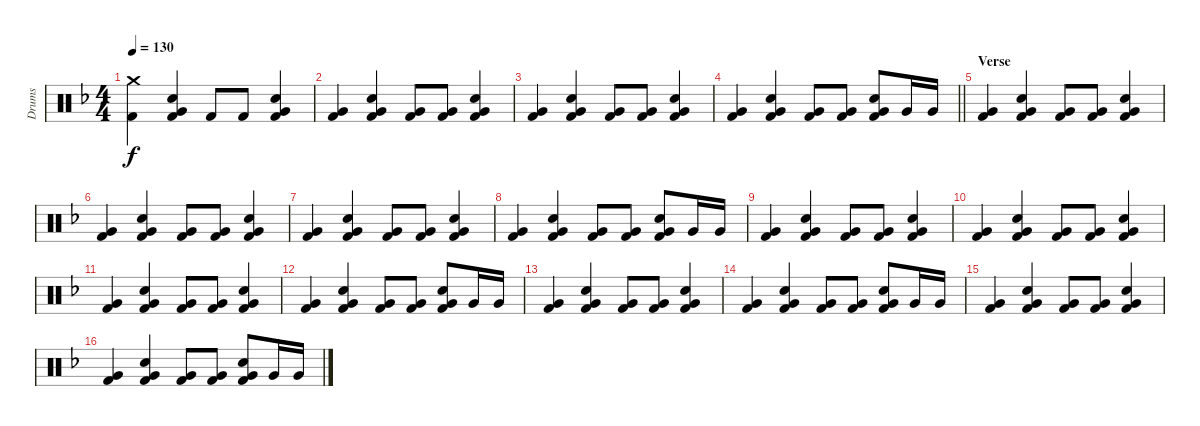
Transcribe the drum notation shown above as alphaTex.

\track ("Drums" "Drums") {instrument percussion}
\staff {score}
\articulation defaults
\ts (4 4)
\tempo 130
\clef neutral
\ks f
("Crash medium (hit)" "Kick (hit) 2").4{dy f} ("Snare (hit) 2" "Very Low Tom (hit)" "Kick (hit) 2").4 "Kick (hit) 2".8 "Kick (hit) 2".8 ("Snare (hit) 2" "Very Low Tom (hit)" "Kick (hit) 2").4 |
("Very Low Tom (hit)" "Kick (hit) 2").4 ("Snare (hit) 2" "Very Low Tom (hit)" "Kick (hit) 2").4 ("Very Low Tom (hit)" "Kick (hit) 2").8 ("Very Low Tom (hit)" "Kick (hit) 2").8 ("Snare (hit) 2" "Very Low Tom (hit)" "Kick (hit) 2").4 |
("Very Low Tom (hit)" "Kick (hit) 2").4 ("Snare (hit) 2" "Very Low Tom (hit)" "Kick (hit) 2").4 ("Very Low Tom (hit)" "Kick (hit) 2").8 ("Very Low Tom (hit)" "Kick (hit) 2").8 ("Snare (hit) 2" "Very Low Tom (hit)" "Kick (hit) 2").4 |
\barLineRight lightlight
("Very Low Tom (hit)" "Kick (hit) 2").4 ("Snare (hit) 2" "Very Low Tom (hit)" "Kick (hit) 2").4 ("Very Low Tom (hit)" "Kick (hit) 2").8 ("Very Low Tom (hit)" "Kick (hit) 2").8 ("Snare (hit) 2" "Very Low Tom (hit)" "Kick (hit) 2").8 "Very Low Tom (hit)".16 "Very Low Tom (hit)".16 |
\section ("" "Verse")
("Very Low Tom (hit)" "Kick (hit) 2").4 ("Snare (hit) 2" "Very Low Tom (hit)" "Kick (hit) 2").4 ("Very Low Tom (hit)" "Kick (hit) 2").8 ("Very Low Tom (hit)" "Kick (hit) 2").8 ("Snare (hit) 2" "Very Low Tom (hit)" "Kick (hit) 2").4 |
("Very Low Tom (hit)" "Kick (hit) 2").4 ("Snare (hit) 2" "Very Low Tom (hit)" "Kick (hit) 2").4 ("Very Low Tom (hit)" "Kick (hit) 2").8 ("Very Low Tom (hit)" "Kick (hit) 2").8 ("Snare (hit) 2" "Very Low Tom (hit)" "Kick (hit) 2").4 |
("Very Low Tom (hit)" "Kick (hit) 2").4 ("Snare (hit) 2" "Very Low Tom (hit)" "Kick (hit) 2").4 ("Very Low Tom (hit)" "Kick (hit) 2").8 ("Very Low Tom (hit)" "Kick (hit) 2").8 ("Snare (hit) 2" "Very Low Tom (hit)" "Kick (hit) 2").4 |
("Very Low Tom (hit)" "Kick (hit) 2").4 ("Snare (hit) 2" "Very Low Tom (hit)" "Kick (hit) 2").4 ("Very Low Tom (hit)" "Kick (hit) 2").8 ("Very Low Tom (hit)" "Kick (hit) 2").8 ("Snare (hit) 2" "Very Low Tom (hit)" "Kick (hit) 2").8 "Very Low Tom (hit)".16 "Very Low Tom (hit)".16 |
("Very Low Tom (hit)" "Kick (hit) 2").4 ("Snare (hit) 2" "Very Low Tom (hit)" "Kick (hit) 2").4 ("Very Low Tom (hit)" "Kick (hit) 2").8 ("Very Low Tom (hit)" "Kick (hit) 2").8 ("Snare (hit) 2" "Very Low Tom (hit)" "Kick (hit) 2").4 |
("Very Low Tom (hit)" "Kick (hit) 2").4 ("Snare (hit) 2" "Very Low Tom (hit)" "Kick (hit) 2").4 ("Very Low Tom (hit)" "Kick (hit) 2").8 ("Very Low Tom (hit)" "Kick (hit) 2").8 ("Snare (hit) 2" "Very Low Tom (hit)" "Kick (hit) 2").4 |
("Very Low Tom (hit)" "Kick (hit) 2").4 ("Snare (hit) 2" "Very Low Tom (hit)" "Kick (hit) 2").4 ("Very Low Tom (hit)" "Kick (hit) 2").8 ("Very Low Tom (hit)" "Kick (hit) 2").8 ("Snare (hit) 2" "Very Low Tom (hit)" "Kick (hit) 2").4 |
("Very Low Tom (hit)" "Kick (hit) 2").4 ("Snare (hit) 2" "Very Low Tom (hit)" "Kick (hit) 2").4 ("Very Low Tom (hit)" "Kick (hit) 2").8 ("Very Low Tom (hit)" "Kick (hit) 2").8 ("Snare (hit) 2" "Very Low Tom (hit)" "Kick (hit) 2").8 "Very Low Tom (hit)".16 "Very Low Tom (hit)".16 |
("Very Low Tom (hit)" "Kick (hit) 2").4 ("Snare (hit) 2" "Very Low Tom (hit)" "Kick (hit) 2").4 ("Very Low Tom (hit)" "Kick (hit) 2").8 ("Very Low Tom (hit)" "Kick (hit) 2").8 ("Snare (hit) 2" "Very Low Tom (hit)" "Kick (hit) 2").4 |
("Very Low Tom (hit)" "Kick (hit) 2").4 ("Snare (hit) 2" "Very Low Tom (hit)" "Kick (hit) 2").4 ("Very Low Tom (hit)" "Kick (hit) 2").8 ("Very Low Tom (hit)" "Kick (hit) 2").8 ("Snare (hit) 2" "Very Low Tom (hit)" "Kick (hit) 2").8 "Very Low Tom (hit)".16 "Very Low Tom (hit)".16 |
("Very Low Tom (hit)" "Kick (hit) 2").4 ("Snare (hit) 2" "Very Low Tom (hit)" "Kick (hit) 2").4 ("Very Low Tom (hit)" "Kick (hit) 2").8 ("Very Low Tom (hit)" "Kick (hit) 2").8 ("Snare (hit) 2" "Very Low Tom (hit)" "Kick (hit) 2").4 |
("Very Low Tom (hit)" "Kick (hit) 2").4 ("Snare (hit) 2" "Very Low Tom (hit)" "Kick (hit) 2").4 ("Very Low Tom (hit)" "Kick (hit) 2").8 ("Very Low Tom (hit)" "Kick (hit) 2").8 ("Snare (hit) 2" "Very Low Tom (hit)" "Kick (hit) 2").8 "Very Low Tom (hit)".16 "Very Low Tom (hit)".16
